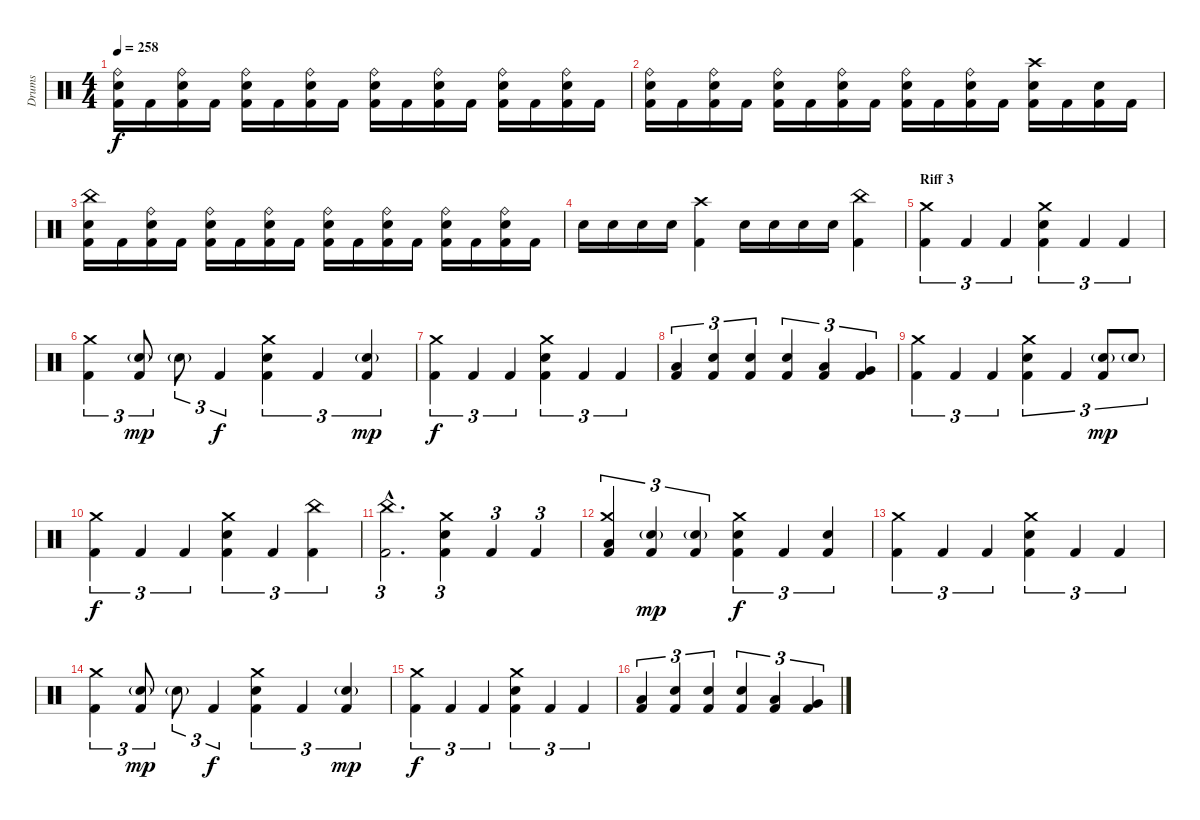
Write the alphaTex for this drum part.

\track ("Drums" "Drums") {instrument percussion}
\staff {score}
\articulation defaults
\ts (4 4)
\tempo 258
\clef neutral
\ks c
("Kick (hit) 2" "Snare (hit) 2" "Ride (bell)").16{dy f} "Kick (hit) 2".16 ("Kick (hit) 2" "Snare (hit) 2" "Ride (bell)").16 "Kick (hit) 2".16 ("Kick (hit) 2" "Snare (hit) 2" "Ride (bell)").16 "Kick (hit) 2".16 ("Kick (hit) 2" "Snare (hit) 2" "Ride (bell)").16 "Kick (hit) 2".16 ("Kick (hit) 2" "Snare (hit) 2" "Ride (bell)").16 "Kick (hit) 2".16 ("Kick (hit) 2" "Snare (hit) 2" "Ride (bell)").16 "Kick (hit) 2".16 ("Kick (hit) 2" "Snare (hit) 2" "Ride (bell)").16 "Kick (hit) 2".16 ("Kick (hit) 2" "Snare (hit) 2" "Ride (bell)").16 "Kick (hit) 2".16 |
("Kick (hit) 2" "Snare (hit) 2" "Ride (bell)").16 "Kick (hit) 2".16 ("Kick (hit) 2" "Snare (hit) 2" "Ride (bell)").16 "Kick (hit) 2".16 ("Kick (hit) 2" "Snare (hit) 2" "Ride (bell)").16 "Kick (hit) 2".16 ("Kick (hit) 2" "Snare (hit) 2" "Ride (bell)").16 "Kick (hit) 2".16 ("Kick (hit) 2" "Snare (hit) 2" "Ride (bell)").16 "Kick (hit) 2".16 ("Kick (hit) 2" "Snare (hit) 2" "Ride (bell)").16 "Kick (hit) 2".16 ("Kick (hit) 2" "Snare (hit) 2" "Crash high (hit)").16 "Kick (hit) 2".16 ("Kick (hit) 2" "Snare (hit) 2").16 "Kick (hit) 2".16 |
("Kick (hit) 2" "Snare (hit) 2" "China (hit)").16 "Kick (hit) 2".16 ("Kick (hit) 2" "Snare (hit) 2" "Ride (bell)").16 "Kick (hit) 2".16 ("Kick (hit) 2" "Snare (hit) 2" "Ride (bell)").16 "Kick (hit) 2".16 ("Kick (hit) 2" "Snare (hit) 2" "Ride (bell)").16 "Kick (hit) 2".16 ("Kick (hit) 2" "Snare (hit) 2" "Ride (bell)").16 "Kick (hit) 2".16 ("Kick (hit) 2" "Snare (hit) 2" "Ride (bell)").16 "Kick (hit) 2".16 ("Kick (hit) 2" "Snare (hit) 2" "Ride (bell)").16 "Kick (hit) 2".16 ("Kick (hit) 2" "Snare (hit) 2" "Ride (bell)").16 "Kick (hit) 2".16 |
"Snare (hit) 2".16 "Snare (hit) 2".16 "Snare (hit) 2".16 "Snare (hit) 2".16 ("Kick (hit) 2" "Crash high (hit)").4 "Snare (hit) 2".16 "Snare (hit) 2".16 "Snare (hit) 2".16 "Snare (hit) 2".16 ("Kick (hit) 2" "China (hit)").4 |
\section ("" "Riff 3")
("Kick (hit) 2" "Crash medium (hit)").4{tu (3 2)} "Kick (hit) 2".4{tu (3 2)} "Kick (hit) 2".4{tu (3 2)} ("Kick (hit) 2" "Snare (hit) 2" "Crash medium (hit)").4{tu (3 2)} "Kick (hit) 2".4{tu (3 2)} "Kick (hit) 2".4{tu (3 2)} |
("Kick (hit) 2" "Crash medium (hit)").4{tu (3 2)} ("Kick (hit) 2" "Snare (hit) 2"{g}).8{tu (3 2) dy mp} "Snare (hit) 2"{g}.8{tu (3 2)} "Kick (hit) 2".4{tu (3 2) dy f} ("Kick (hit) 2" "Snare (hit) 2" "Crash medium (hit)").4{tu (3 2)} "Kick (hit) 2".4{tu (3 2)} ("Kick (hit) 2" "Snare (hit) 2"{g}).4{tu (3 2) dy mp} |
("Kick (hit) 2" "Crash medium (hit)").4{tu (3 2) dy f} "Kick (hit) 2".4{tu (3 2)} "Kick (hit) 2".4{tu (3 2)} ("Kick (hit) 2" "Snare (hit) 2" "Crash medium (hit)").4{tu (3 2)} "Kick (hit) 2".4{tu (3 2)} "Kick (hit) 2".4{tu (3 2)} |
("Kick (hit) 2" "Low Tom (hit)").4{tu (3 2)} ("Kick (hit) 2" "Snare (hit) 2").4{tu (3 2)} ("Kick (hit) 2" "Snare (hit) 2").4{tu (3 2)} ("Kick (hit) 2" "Snare (hit) 2").4{tu (3 2)} ("Kick (hit) 2" "Low Tom (hit)").4{tu (3 2)} ("Kick (hit) 2" "Very Low Tom (hit)").4{tu (3 2)} |
("Kick (hit) 2" "Crash medium (hit)").4{tu (3 2)} "Kick (hit) 2".4{tu (3 2)} "Kick (hit) 2".4{tu (3 2)} ("Kick (hit) 2" "Snare (hit) 2" "Crash medium (hit)").4{tu (3 2)} "Kick (hit) 2".4{tu (3 2)} ("Kick (hit) 2" "Snare (hit) 2"{g}).8{tu (3 2) dy mp} "Snare (hit) 2"{g}.8{tu (3 2)} |
("Kick (hit) 2" "Crash medium (hit)").4{tu (3 2) dy f} "Kick (hit) 2".4{tu (3 2)} "Kick (hit) 2".4{tu (3 2)} ("Kick (hit) 2" "Snare (hit) 2" "Crash medium (hit)").4{tu (3 2)} "Kick (hit) 2".4{tu (3 2)} ("Kick (hit) 2" "China (hit)").4{tu (3 2)} |
("Kick (hit) 2"{hac} "China (hit)"{hac}).2{d tu (3 2)} ("Kick (hit) 2" "Snare (hit) 2" "Crash medium (hit)").4{tu (3 2)} "Kick (hit) 2".4{tu (3 2)} "Kick (hit) 2".4{tu (3 2)} |
("Kick (hit) 2" "Low Tom (hit)" "Crash medium (hit)").4{tu (3 2)} ("Kick (hit) 2" "Snare (hit) 2"{g}).4{tu (3 2) dy mp} ("Kick (hit) 2" "Snare (hit) 2"{g}).4{tu (3 2)} ("Kick (hit) 2" "Snare (hit) 2" "Crash medium (hit)").4{tu (3 2) dy f} "Kick (hit) 2".4{tu (3 2)} ("Kick (hit) 2" "Snare (hit) 2").4{tu (3 2)} |
("Kick (hit) 2" "Crash medium (hit)").4{tu (3 2)} "Kick (hit) 2".4{tu (3 2)} "Kick (hit) 2".4{tu (3 2)} ("Kick (hit) 2" "Snare (hit) 2" "Crash medium (hit)").4{tu (3 2)} "Kick (hit) 2".4{tu (3 2)} "Kick (hit) 2".4{tu (3 2)} |
("Kick (hit) 2" "Crash medium (hit)").4{tu (3 2)} ("Kick (hit) 2" "Snare (hit) 2"{g}).8{tu (3 2) dy mp} "Snare (hit) 2"{g}.8{tu (3 2)} "Kick (hit) 2".4{tu (3 2) dy f} ("Kick (hit) 2" "Snare (hit) 2" "Crash medium (hit)").4{tu (3 2)} "Kick (hit) 2".4{tu (3 2)} ("Kick (hit) 2" "Snare (hit) 2"{g}).4{tu (3 2) dy mp} |
("Kick (hit) 2" "Crash medium (hit)").4{tu (3 2) dy f} "Kick (hit) 2".4{tu (3 2)} "Kick (hit) 2".4{tu (3 2)} ("Kick (hit) 2" "Snare (hit) 2" "Crash medium (hit)").4{tu (3 2)} "Kick (hit) 2".4{tu (3 2)} "Kick (hit) 2".4{tu (3 2)} |
("Kick (hit) 2" "Low Tom (hit)").4{tu (3 2)} ("Kick (hit) 2" "Snare (hit) 2").4{tu (3 2)} ("Kick (hit) 2" "Snare (hit) 2").4{tu (3 2)} ("Kick (hit) 2" "Snare (hit) 2").4{tu (3 2)} ("Kick (hit) 2" "Low Tom (hit)").4{tu (3 2)} ("Kick (hit) 2" "Very Low Tom (hit)").4{tu (3 2)}
